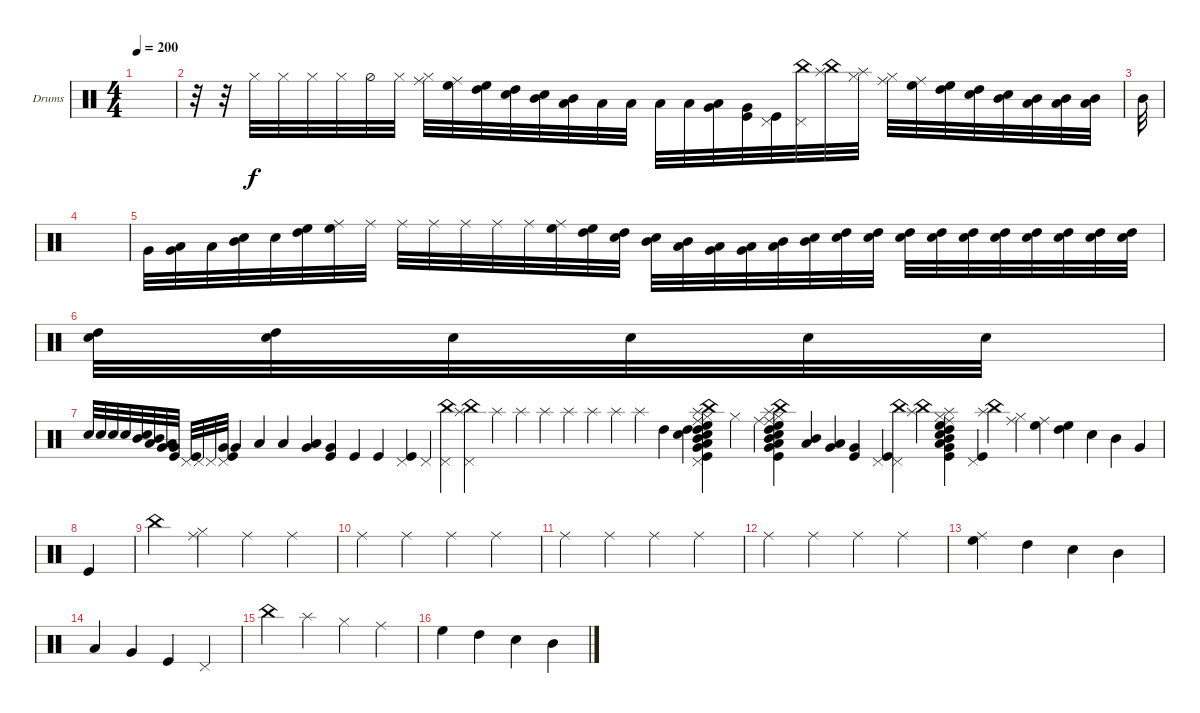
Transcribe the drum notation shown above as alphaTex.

\defaultSystemsLayout 4
\bracketExtendMode groupsimilarinstruments
\firstSystemTrackNameOrientation horizontal
\otherSystemsTrackNameOrientation horizontal
\track ("Drumkit" "Drums") {instrument percussion}
\staff {score}
\articulation defaults
\ts (4 4)
\tempo 200
\clef neutral
\ks c
|
r.32 r.32 "Hi-Hat (closed)".32 "Hi-Hat (closed)".32 "Hi-Hat (closed)".32 "Hi-Hat (closed)".32 "Hi-Hat (half)".32 "Hi-Hat (closed)".32 ("Hi-Hat (closed)" "Ride (middle)").32 ("Ride (middle)" "High Floor Tom (hit)").32 ("High Floor Tom (hit)" "High Tom (hit)").32 ("High Tom (hit)" "Snare (hit) 2").32 ("Snare (hit) 2" "Mid Tom (hit)").32 ("Mid Tom (hit)" "Low Tom (hit)").32 "Low Tom (hit)".32 "Low Tom (hit)".32 "Low Tom (hit)".32 "Low Tom (hit)".32 ("Low Tom (hit)" "Very Low Tom (hit)").32 ("Very Low Tom (hit)" "Kick (hit)").32 ("Kick (hit)" "Pedal Hi-Hat (hit)").32 ("Pedal Hi-Hat (hit)" "China (hit)").32 ("China (hit)" "Splash (hit)").32 ("Splash (hit)" "Hi-Hat (closed)").32 ("Hi-Hat (closed)" "Ride (middle)").32 ("Ride (middle)" "High Floor Tom (hit)").32 ("High Floor Tom (hit)" "High Tom (hit)").32 ("High Tom (hit)" "Snare (hit) 2").32 ("Snare (hit) 2" "Mid Tom (hit)").32 ("Mid Tom (hit)" "Low Tom (hit)").32 ("Low Tom (hit)" "Mid Tom (hit)").32 ("Mid Tom (hit)" "Low Tom (hit)").32 |
"Mid Tom (hit)".32 |
|
"Very Low Tom (hit)".32 ("Very Low Tom (hit)" "Low Tom (hit)").32 "Low Tom (hit)".32 ("Mid Tom (hit)" "Snare (hit) 2").32 "Snare (hit) 2".32 ("High Tom (hit)" "High Floor Tom (hit)").32 ("High Floor Tom (hit)" "Ride (middle)").32 "Ride (middle)".32 "Ride (middle)".32 "Ride (middle)".32 "Ride (middle)".32 "Ride (middle)".32 "Ride (middle)".32 ("Ride (middle)" "High Floor Tom (hit)").32 ("High Floor Tom (hit)" "High Tom (hit)").32 ("High Tom (hit)" "Snare (hit) 2").32 ("Snare (hit) 2" "Mid Tom (hit)").32 ("Mid Tom (hit)" "Low Tom (hit)").32 ("Low Tom (hit)" "Very Low Tom (hit)").32 ("Very Low Tom (hit)" "Low Tom (hit)").32 ("Low Tom (hit)" "Mid Tom (hit)").32 ("Mid Tom (hit)" "Snare (hit) 2").32 ("Snare (hit) 2" "High Tom (hit)").32 ("High Tom (hit)" "Snare (hit) 2").32 ("Snare (hit) 2" "High Tom (hit)").32 ("High Tom (hit)" "Snare (hit) 2").32 ("Snare (hit) 2" "High Tom (hit)").32 ("High Tom (hit)" "Snare (hit) 2").32 ("Snare (hit) 2" "High Tom (hit)").32 ("High Tom (hit)" "Snare (hit) 2").32 ("Snare (hit) 2" "High Tom (hit)").32 ("High Tom (hit)" "Snare (hit) 2").32 |
("Snare (hit) 2" "High Tom (hit)").32 ("High Tom (hit)" "Snare (hit) 2").32 "Snare (hit) 2".32 "Snare (hit) 2".32 "Snare (hit) 2".32 "Snare (hit) 2".32 |
"Snare (hit) 2".32 "Snare (hit) 2".32 "Snare (hit) 2".32 "Snare (hit) 2".32 ("Snare (hit) 2" "Mid Tom (hit)").32 ("Mid Tom (hit)" "Low Tom (hit)").32 ("Low Tom (hit)" "Very Low Tom (hit)").32 ("Very Low Tom (hit)" "Kick (hit)").32 ("Kick (hit)" "Pedal Hi-Hat (hit)").32 "Pedal Hi-Hat (hit)".32 "Pedal Hi-Hat (hit)".32 ("Pedal Hi-Hat (hit)" "Kick (hit)" "Very Low Tom (hit)").32 "Very Low Tom (hit)".4 "Low Tom (hit)".4 "Low Tom (hit)".4 ("Low Tom (hit)" "Very Low Tom (hit)").4 ("Very Low Tom (hit)" "Kick (hit)").4 "Kick (hit)".4 "Kick (hit)".4 ("Kick (hit)" "Pedal Hi-Hat (hit)").4 "Pedal Hi-Hat (hit)".4 ("Pedal Hi-Hat (hit)" "China (hit)").4 ("Pedal Hi-Hat (hit)" "China (hit)" "Splash (hit)").4 "Splash (hit)".4 "Splash (hit)".4 "Splash (hit)".4 "Splash (hit)".4 "Splash (hit)".4 "Splash (hit)".4 "Splash (hit)".4 "High Tom (hit)".4 ("High Tom (hit)" "Snare (hit) 2").4 ("Snare (hit) 2" "Mid Tom (hit)" "Low Tom (hit)" "Very Low Tom (hit)" "Kick (hit)" "Pedal Hi-Hat (hit)" "China (hit)" "Splash (hit)" "Hi-Hat (closed)" "Ride (middle)" "High Floor Tom (hit)" "High Tom (hit)").4 "Hi-Hat (closed)".4 "Ride (middle)".4 ("Ride (middle)" "High Floor Tom (hit)" "High Tom (hit)" "Snare (hit) 2" "Mid Tom (hit)" "Low Tom (hit)" "Very Low Tom (hit)" "Kick (hit)" "China (hit)" "Splash (hit)" "Hi-Hat (closed)").4 ("Mid Tom (hit)" "Low Tom (hit)").4 ("Low Tom (hit)" "Very Low Tom (hit)").4 ("Very Low Tom (hit)" "Kick (hit)").4 ("Kick (hit)" "Pedal Hi-Hat (hit)").4 ("Pedal Hi-Hat (hit)" "China (hit)").4 ("China (hit)" "Splash (hit)").4 ("Splash (hit)" "Hi-Hat (closed)" "Ride (middle)" "High Floor Tom (hit)" "High Tom (hit)" "Snare (hit) 2" "Mid Tom (hit)" "Low Tom (hit)" "Very Low Tom (hit)" "Kick (hit)").4 ("Kick (hit)" "Pedal Hi-Hat (hit)").4 ("China (hit)" "Splash (hit)").4 ("Hi-Hat (closed)" "Ride (middle)").4 ("Ride (middle)" "High Floor Tom (hit)").4 ("High Floor Tom (hit)" "High Tom (hit)").4 "Snare (hit) 2".4 "Mid Tom (hit)".4 "Very Low Tom (hit)".4 |
"Kick (hit)".4 |
"China (hit)".4 ("Hi-Hat (closed)" "Ride (middle)").4 "Ride (middle)".4 "Ride (middle)".4 |
"Ride (middle)".4 "Ride (middle)".4 "Ride (middle)".4 "Ride (middle)".4 |
"Ride (middle)".4 "Ride (middle)".4 "Ride (middle)".4 "Ride (middle)".4 |
"Ride (middle)".4 "Ride (middle)".4 "Ride (middle)".4 "Ride (middle)".4 |
("Ride (middle)" "High Floor Tom (hit)").4 "High Tom (hit)".4 "Snare (hit) 2".4 "Mid Tom (hit)".4 |
"Low Tom (hit)".4 "Very Low Tom (hit)".4 "Kick (hit)".4 "Pedal Hi-Hat (hit)".4 |
"China (hit)".4 "Splash (hit)".4 "Hi-Hat (closed)".4 "Ride (middle)".4 |
"High Floor Tom (hit)".4 "High Tom (hit)".4 "Snare (hit) 2".4 "Mid Tom (hit)".4
